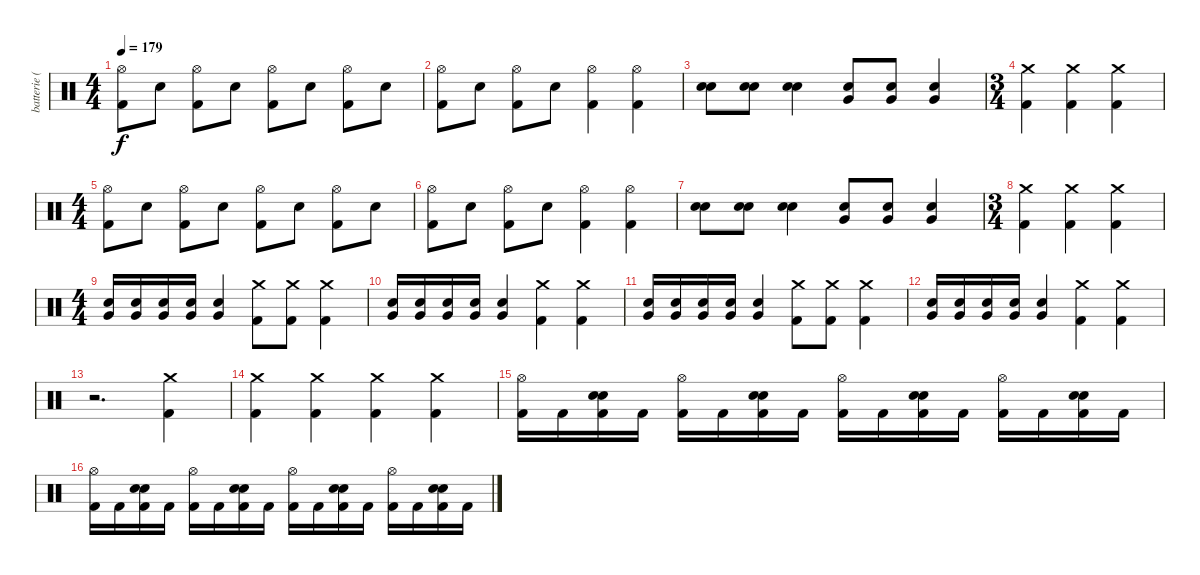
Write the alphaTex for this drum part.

\track ("batterie ( Carlos ) " "batterie (") {instrument percussion}
\staff {score}
\articulation defaults
\ts (4 4)
\tempo 179
\clef neutral
\ks c
("Hi-Hat (open)" "Kick (hit) 2").8{dy f} "Electric Snare (hit)".8 ("Hi-Hat (open)" "Kick (hit) 2").8 "Electric Snare (hit)".8 ("Hi-Hat (open)" "Kick (hit) 2").8 "Electric Snare (hit)".8 ("Hi-Hat (open)" "Kick (hit) 2").8 "Electric Snare (hit)".8 |
("Hi-Hat (open)" "Kick (hit) 2").8 "Electric Snare (hit)".8 ("Hi-Hat (open)" "Kick (hit) 2").8 "Electric Snare (hit)".8 ("Hi-Hat (open)" "Kick (hit) 2").4 ("Hi-Hat (open)" "Kick (hit) 2").4 |
("Snare (hit) 2" "Electric Snare (hit)").8 ("Snare (hit) 2" "Electric Snare (hit)").8 ("Snare (hit) 2" "Electric Snare (hit)").4 ("Very Low Tom (hit)" "Electric Snare (hit)").8 ("Very Low Tom (hit)" "Electric Snare (hit)").8 ("Very Low Tom (hit)" "Electric Snare (hit)").4 |
\ts (3 4)
("Crash medium (hit)" "Kick (hit) 2").4 ("Crash medium (hit)" "Kick (hit) 2").4 ("Crash medium (hit)" "Kick (hit) 2").4 |
\ts (4 4)
("Hi-Hat (open)" "Kick (hit) 2").8 "Electric Snare (hit)".8 ("Hi-Hat (open)" "Kick (hit) 2").8 "Electric Snare (hit)".8 ("Hi-Hat (open)" "Kick (hit) 2").8 "Electric Snare (hit)".8 ("Hi-Hat (open)" "Kick (hit) 2").8 "Electric Snare (hit)".8 |
("Hi-Hat (open)" "Kick (hit) 2").8 "Electric Snare (hit)".8 ("Hi-Hat (open)" "Kick (hit) 2").8 "Electric Snare (hit)".8 ("Hi-Hat (open)" "Kick (hit) 2").4 ("Hi-Hat (open)" "Kick (hit) 2").4 |
("Snare (hit) 2" "Electric Snare (hit)").8 ("Snare (hit) 2" "Electric Snare (hit)").8 ("Snare (hit) 2" "Electric Snare (hit)").4 ("Very Low Tom (hit)" "Electric Snare (hit)").8 ("Very Low Tom (hit)" "Electric Snare (hit)").8 ("Very Low Tom (hit)" "Electric Snare (hit)").4 |
\ts (3 4)
("Crash medium (hit)" "Kick (hit) 2").4 ("Crash medium (hit)" "Kick (hit) 2").4 ("Crash medium (hit)" "Kick (hit) 2").4 |
\ts (4 4)
("Very Low Tom (hit)" "Electric Snare (hit)").16 ("Very Low Tom (hit)" "Electric Snare (hit)").16 ("Very Low Tom (hit)" "Electric Snare (hit)").16 ("Very Low Tom (hit)" "Electric Snare (hit)").16 ("Very Low Tom (hit)" "Electric Snare (hit)").4 ("Crash medium (hit)" "Kick (hit) 2").8 ("Crash medium (hit)" "Kick (hit) 2").8 ("Crash medium (hit)" "Kick (hit) 2").4 |
("Very Low Tom (hit)" "Electric Snare (hit)").16 ("Very Low Tom (hit)" "Electric Snare (hit)").16 ("Very Low Tom (hit)" "Electric Snare (hit)").16 ("Very Low Tom (hit)" "Electric Snare (hit)").16 ("Very Low Tom (hit)" "Electric Snare (hit)").4 ("Crash medium (hit)" "Kick (hit) 2").4 ("Crash medium (hit)" "Kick (hit) 2").4 |
("Very Low Tom (hit)" "Electric Snare (hit)").16 ("Very Low Tom (hit)" "Electric Snare (hit)").16 ("Very Low Tom (hit)" "Electric Snare (hit)").16 ("Very Low Tom (hit)" "Electric Snare (hit)").16 ("Very Low Tom (hit)" "Electric Snare (hit)").4 ("Crash medium (hit)" "Kick (hit) 2").8 ("Crash medium (hit)" "Kick (hit) 2").8 ("Crash medium (hit)" "Kick (hit) 2").4 |
("Very Low Tom (hit)" "Electric Snare (hit)").16 ("Very Low Tom (hit)" "Electric Snare (hit)").16 ("Very Low Tom (hit)" "Electric Snare (hit)").16 ("Very Low Tom (hit)" "Electric Snare (hit)").16 ("Very Low Tom (hit)" "Electric Snare (hit)").4 ("Crash medium (hit)" "Kick (hit) 2").4 ("Crash medium (hit)" "Kick (hit) 2").4 |
r.2{d} ("Crash medium (hit)" "Kick (hit) 2").4 |
("Crash medium (hit)" "Kick (hit) 2").4 ("Crash medium (hit)" "Kick (hit) 2").4 ("Crash medium (hit)" "Kick (hit) 2").4 ("Crash medium (hit)" "Kick (hit) 2").4 |
("Hi-Hat (open)" "Kick (hit) 2").16 "Kick (hit) 2".16 ("Snare (hit) 2" "Electric Snare (hit)" "Kick (hit) 2").16 "Kick (hit) 2".16 ("Hi-Hat (open)" "Kick (hit) 2").16 "Kick (hit) 2".16 ("Snare (hit) 2" "Electric Snare (hit)" "Kick (hit) 2").16 "Kick (hit) 2".16 ("Hi-Hat (open)" "Kick (hit) 2").16 "Kick (hit) 2".16 ("Snare (hit) 2" "Electric Snare (hit)" "Kick (hit) 2").16 "Kick (hit) 2".16 ("Hi-Hat (open)" "Kick (hit) 2").16 "Kick (hit) 2".16 ("Snare (hit) 2" "Electric Snare (hit)" "Kick (hit) 2").16 "Kick (hit) 2".16 |
("Hi-Hat (open)" "Kick (hit) 2").16 "Kick (hit) 2".16 ("Snare (hit) 2" "Electric Snare (hit)" "Kick (hit) 2").16 "Kick (hit) 2".16 ("Hi-Hat (open)" "Kick (hit) 2").16 "Kick (hit) 2".16 ("Snare (hit) 2" "Electric Snare (hit)" "Kick (hit) 2").16 "Kick (hit) 2".16 ("Hi-Hat (open)" "Kick (hit) 2").16 "Kick (hit) 2".16 ("Snare (hit) 2" "Electric Snare (hit)" "Kick (hit) 2").16 "Kick (hit) 2".16 ("Hi-Hat (open)" "Kick (hit) 2").16 "Kick (hit) 2".16 ("Snare (hit) 2" "Electric Snare (hit)" "Kick (hit) 2").16 "Kick (hit) 2".16
